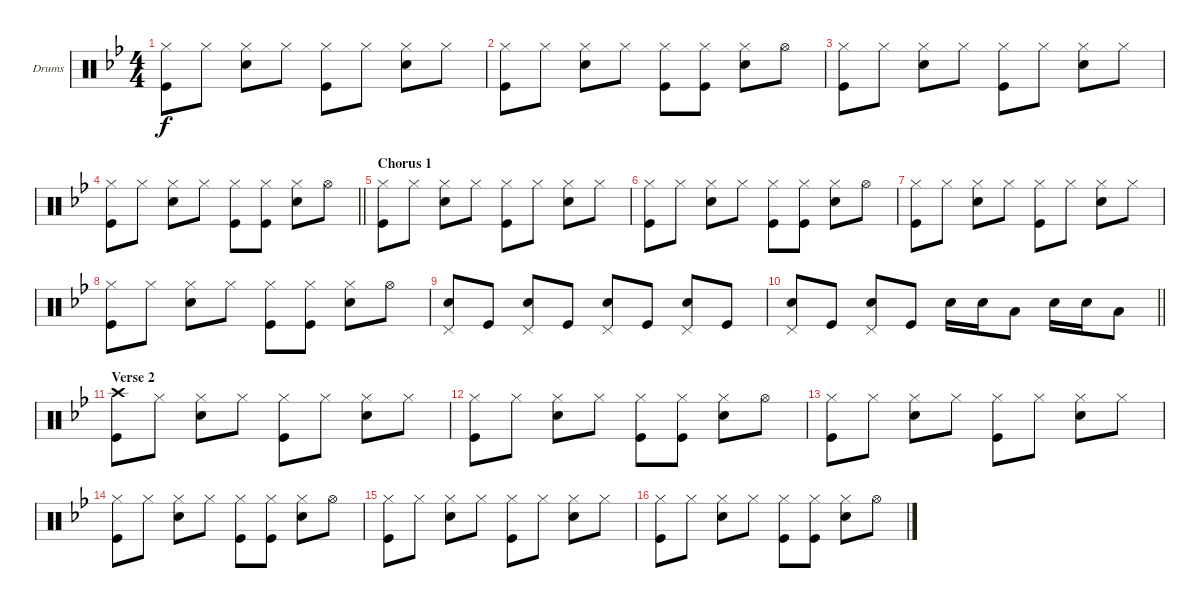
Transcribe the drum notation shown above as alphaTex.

\bracketExtendMode groupsimilarinstruments
\firstSystemTrackNameOrientation horizontal
\otherSystemsTrackNameOrientation horizontal
\track ("Drumkit" "Drums") {instrument percussion}
\staff {score}
\articulation defaults
\ts (4 4)
\tempo (82 hide)
\clef neutral
\ks gminor
("Hi-Hat (closed)" "Kick (hit)").8{dy f} "Hi-Hat (closed)".8 ("Hi-Hat (closed)" "Snare (hit) 2").8 "Hi-Hat (closed)".8 ("Hi-Hat (closed)" "Kick (hit)").8 "Hi-Hat (closed)".8 ("Hi-Hat (closed)" "Snare (hit) 2").8 "Hi-Hat (closed)".8 |
("Hi-Hat (closed)" "Kick (hit)").8 "Hi-Hat (closed)".8 ("Hi-Hat (closed)" "Snare (hit) 2").8 "Hi-Hat (closed)".8 ("Hi-Hat (closed)" "Kick (hit)").8 ("Hi-Hat (closed)" "Kick (hit)").8 ("Hi-Hat (closed)" "Snare (hit) 2").8 "Hi-Hat (open)".8 |
("Hi-Hat (closed)" "Kick (hit)").8 "Hi-Hat (closed)".8 ("Hi-Hat (closed)" "Snare (hit) 2").8 "Hi-Hat (closed)".8 ("Hi-Hat (closed)" "Kick (hit)").8 "Hi-Hat (closed)".8 ("Hi-Hat (closed)" "Snare (hit) 2").8 "Hi-Hat (closed)".8 |
\barLineRight lightlight
("Hi-Hat (closed)" "Kick (hit)").8 "Hi-Hat (closed)".8 ("Hi-Hat (closed)" "Snare (hit) 2").8 "Hi-Hat (closed)".8 ("Hi-Hat (closed)" "Kick (hit)").8 ("Hi-Hat (closed)" "Kick (hit)").8 ("Hi-Hat (closed)" "Snare (hit) 2").8 "Hi-Hat (open)".8 |
\section ("" "Chorus 1")
("Hi-Hat (closed)" "Kick (hit)").8 "Hi-Hat (closed)".8 ("Hi-Hat (closed)" "Snare (hit) 2").8 "Hi-Hat (closed)".8 ("Hi-Hat (closed)" "Kick (hit)").8 "Hi-Hat (closed)".8 ("Hi-Hat (closed)" "Snare (hit) 2").8 "Hi-Hat (closed)".8 |
("Hi-Hat (closed)" "Kick (hit)").8 "Hi-Hat (closed)".8 ("Hi-Hat (closed)" "Snare (hit) 2").8 "Hi-Hat (closed)".8 ("Hi-Hat (closed)" "Kick (hit)").8 ("Hi-Hat (closed)" "Kick (hit)").8 ("Hi-Hat (closed)" "Snare (hit) 2").8 "Hi-Hat (open)".8 |
("Hi-Hat (closed)" "Kick (hit)").8 "Hi-Hat (closed)".8 ("Hi-Hat (closed)" "Snare (hit) 2").8 "Hi-Hat (closed)".8 ("Hi-Hat (closed)" "Kick (hit)").8 "Hi-Hat (closed)".8 ("Hi-Hat (closed)" "Snare (hit) 2").8 "Hi-Hat (closed)".8 |
("Hi-Hat (closed)" "Kick (hit)").8 "Hi-Hat (closed)".8 ("Hi-Hat (closed)" "Snare (hit) 2").8 "Hi-Hat (closed)".8 ("Hi-Hat (closed)" "Kick (hit)").8 ("Hi-Hat (closed)" "Kick (hit)").8 ("Hi-Hat (closed)" "Snare (hit) 2").8 "Hi-Hat (open)".8 |
("Pedal Hi-Hat (hit)" "Snare (hit) 2").8 "Kick (hit)".8 ("Pedal Hi-Hat (hit)" "Snare (hit) 2").8 "Kick (hit)".8 ("Pedal Hi-Hat (hit)" "Snare (hit) 2").8 "Kick (hit)".8 ("Pedal Hi-Hat (hit)" "Snare (hit) 2").8 "Kick (hit)".8 |
\barLineRight lightlight
("Pedal Hi-Hat (hit)" "Snare (hit) 2").8 "Kick (hit)".8 ("Pedal Hi-Hat (hit)" "Snare (hit) 2").8 "Kick (hit)".8 "Snare (hit) 2".16 "Snare (hit) 2".16 "Low Tom (hit)".8 "Snare (hit) 2".16 "Snare (hit) 2".16 "Low Tom (hit)".8 |
\section ("" "Verse 2")
("Crash high (hit)" "Kick (hit)").8 "Hi-Hat (closed)".8 ("Hi-Hat (closed)" "Snare (hit) 2").8 "Hi-Hat (closed)".8 ("Hi-Hat (closed)" "Kick (hit)").8 "Hi-Hat (closed)".8 ("Hi-Hat (closed)" "Snare (hit) 2").8 "Hi-Hat (closed)".8 |
("Hi-Hat (closed)" "Kick (hit)").8 "Hi-Hat (closed)".8 ("Hi-Hat (closed)" "Snare (hit) 2").8 "Hi-Hat (closed)".8 ("Hi-Hat (closed)" "Kick (hit)").8 ("Hi-Hat (closed)" "Kick (hit)").8 ("Hi-Hat (closed)" "Snare (hit) 2").8 "Hi-Hat (open)".8 |
("Hi-Hat (closed)" "Kick (hit)").8 "Hi-Hat (closed)".8 ("Hi-Hat (closed)" "Snare (hit) 2").8 "Hi-Hat (closed)".8 ("Hi-Hat (closed)" "Kick (hit)").8 "Hi-Hat (closed)".8 ("Hi-Hat (closed)" "Snare (hit) 2").8 "Hi-Hat (closed)".8 |
("Hi-Hat (closed)" "Kick (hit)").8 "Hi-Hat (closed)".8 ("Hi-Hat (closed)" "Snare (hit) 2").8 "Hi-Hat (closed)".8 ("Hi-Hat (closed)" "Kick (hit)").8 ("Hi-Hat (closed)" "Kick (hit)").8 ("Hi-Hat (closed)" "Snare (hit) 2").8 "Hi-Hat (open)".8 |
("Hi-Hat (closed)" "Kick (hit)").8 "Hi-Hat (closed)".8 ("Hi-Hat (closed)" "Snare (hit) 2").8 "Hi-Hat (closed)".8 ("Hi-Hat (closed)" "Kick (hit)").8 "Hi-Hat (closed)".8 ("Hi-Hat (closed)" "Snare (hit) 2").8 "Hi-Hat (closed)".8 |
("Hi-Hat (closed)" "Kick (hit)").8 "Hi-Hat (closed)".8 ("Hi-Hat (closed)" "Snare (hit) 2").8 "Hi-Hat (closed)".8 ("Hi-Hat (closed)" "Kick (hit)").8 ("Hi-Hat (closed)" "Kick (hit)").8 ("Hi-Hat (closed)" "Snare (hit) 2").8 "Hi-Hat (open)".8
